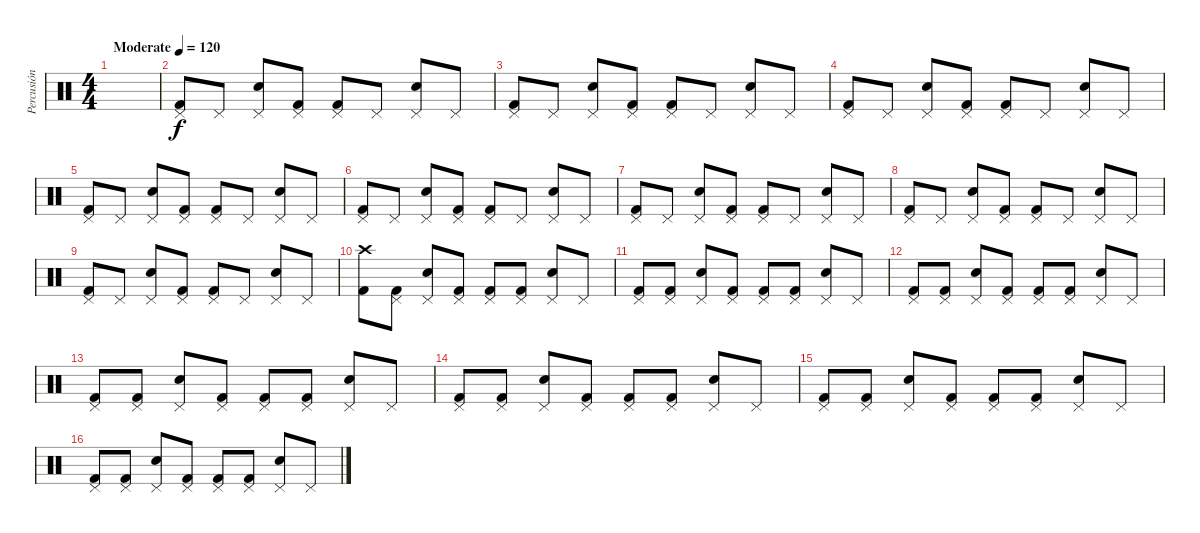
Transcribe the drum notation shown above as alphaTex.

\track ("Percusión" "Percusión") {instrument percussion}
\staff {score}
\articulation defaults
\ts (4 4)
\tempo (120 "Moderate")
\tempo 112
\tempo (120 "Moderate")
\clef neutral
\ks c
|
("Pedal Hi-Hat (hit)" "Kick (hit) 2").8 "Pedal Hi-Hat (hit)".8 ("Pedal Hi-Hat (hit)" "Electric Snare (hit)").8 ("Pedal Hi-Hat (hit)" "Kick (hit) 2").8 ("Pedal Hi-Hat (hit)" "Kick (hit) 2").8 "Pedal Hi-Hat (hit)".8 ("Pedal Hi-Hat (hit)" "Electric Snare (hit)").8 "Pedal Hi-Hat (hit)".8 |
("Pedal Hi-Hat (hit)" "Kick (hit) 2").8 "Pedal Hi-Hat (hit)".8 ("Pedal Hi-Hat (hit)" "Electric Snare (hit)").8 ("Pedal Hi-Hat (hit)" "Kick (hit) 2").8 ("Pedal Hi-Hat (hit)" "Kick (hit) 2").8 "Pedal Hi-Hat (hit)".8 ("Pedal Hi-Hat (hit)" "Electric Snare (hit)").8 "Pedal Hi-Hat (hit)".8 |
("Pedal Hi-Hat (hit)" "Kick (hit) 2").8 "Pedal Hi-Hat (hit)".8 ("Pedal Hi-Hat (hit)" "Electric Snare (hit)").8 ("Pedal Hi-Hat (hit)" "Kick (hit) 2").8 ("Pedal Hi-Hat (hit)" "Kick (hit) 2").8 "Pedal Hi-Hat (hit)".8 ("Pedal Hi-Hat (hit)" "Electric Snare (hit)").8 "Pedal Hi-Hat (hit)".8 |
("Pedal Hi-Hat (hit)" "Kick (hit) 2").8 "Pedal Hi-Hat (hit)".8 ("Pedal Hi-Hat (hit)" "Electric Snare (hit)").8 ("Pedal Hi-Hat (hit)" "Kick (hit) 2").8 ("Pedal Hi-Hat (hit)" "Kick (hit) 2").8 "Pedal Hi-Hat (hit)".8 ("Pedal Hi-Hat (hit)" "Electric Snare (hit)").8 "Pedal Hi-Hat (hit)".8 |
("Pedal Hi-Hat (hit)" "Kick (hit) 2").8 "Pedal Hi-Hat (hit)".8 ("Pedal Hi-Hat (hit)" "Electric Snare (hit)").8 ("Pedal Hi-Hat (hit)" "Kick (hit) 2").8 ("Pedal Hi-Hat (hit)" "Kick (hit) 2").8 "Pedal Hi-Hat (hit)".8 ("Pedal Hi-Hat (hit)" "Electric Snare (hit)").8 "Pedal Hi-Hat (hit)".8 |
("Pedal Hi-Hat (hit)" "Kick (hit) 2").8 "Pedal Hi-Hat (hit)".8 ("Pedal Hi-Hat (hit)" "Electric Snare (hit)").8 ("Pedal Hi-Hat (hit)" "Kick (hit) 2").8 ("Pedal Hi-Hat (hit)" "Kick (hit) 2").8 "Pedal Hi-Hat (hit)".8 ("Pedal Hi-Hat (hit)" "Electric Snare (hit)").8 "Pedal Hi-Hat (hit)".8 |
("Pedal Hi-Hat (hit)" "Kick (hit) 2").8 "Pedal Hi-Hat (hit)".8 ("Pedal Hi-Hat (hit)" "Electric Snare (hit)").8 ("Pedal Hi-Hat (hit)" "Kick (hit) 2").8 ("Pedal Hi-Hat (hit)" "Kick (hit) 2").8 "Pedal Hi-Hat (hit)".8 ("Pedal Hi-Hat (hit)" "Electric Snare (hit)").8 "Pedal Hi-Hat (hit)".8 |
("Pedal Hi-Hat (hit)" "Kick (hit) 2").8 "Pedal Hi-Hat (hit)".8 ("Pedal Hi-Hat (hit)" "Electric Snare (hit)").8 ("Pedal Hi-Hat (hit)" "Kick (hit) 2").8 ("Pedal Hi-Hat (hit)" "Kick (hit) 2").8 "Pedal Hi-Hat (hit)".8 ("Pedal Hi-Hat (hit)" "Electric Snare (hit)").8 "Pedal Hi-Hat (hit)".8 |
("Crash high (hit)" "Kick (hit) 2").8 ("Pedal Hi-Hat (hit)" "Kick (hit) 2").8 ("Pedal Hi-Hat (hit)" "Electric Snare (hit)").8 ("Pedal Hi-Hat (hit)" "Kick (hit) 2").8 ("Pedal Hi-Hat (hit)" "Kick (hit) 2").8 ("Pedal Hi-Hat (hit)" "Kick (hit) 2").8 ("Pedal Hi-Hat (hit)" "Electric Snare (hit)").8 "Pedal Hi-Hat (hit)".8 |
("Pedal Hi-Hat (hit)" "Kick (hit) 2").8 ("Pedal Hi-Hat (hit)" "Kick (hit) 2").8 ("Pedal Hi-Hat (hit)" "Electric Snare (hit)").8 ("Pedal Hi-Hat (hit)" "Kick (hit) 2").8 ("Pedal Hi-Hat (hit)" "Kick (hit) 2").8 ("Pedal Hi-Hat (hit)" "Kick (hit) 2").8 ("Pedal Hi-Hat (hit)" "Electric Snare (hit)").8 "Pedal Hi-Hat (hit)".8 |
("Pedal Hi-Hat (hit)" "Kick (hit) 2").8 ("Pedal Hi-Hat (hit)" "Kick (hit) 2").8 ("Pedal Hi-Hat (hit)" "Electric Snare (hit)").8 ("Pedal Hi-Hat (hit)" "Kick (hit) 2").8 ("Pedal Hi-Hat (hit)" "Kick (hit) 2").8 ("Pedal Hi-Hat (hit)" "Kick (hit) 2").8 ("Pedal Hi-Hat (hit)" "Electric Snare (hit)").8 "Pedal Hi-Hat (hit)".8 |
("Pedal Hi-Hat (hit)" "Kick (hit) 2").8 ("Pedal Hi-Hat (hit)" "Kick (hit) 2").8 ("Pedal Hi-Hat (hit)" "Electric Snare (hit)").8 ("Pedal Hi-Hat (hit)" "Kick (hit) 2").8 ("Pedal Hi-Hat (hit)" "Kick (hit) 2").8 ("Pedal Hi-Hat (hit)" "Kick (hit) 2").8 ("Pedal Hi-Hat (hit)" "Electric Snare (hit)").8 "Pedal Hi-Hat (hit)".8 |
("Pedal Hi-Hat (hit)" "Kick (hit) 2").8 ("Pedal Hi-Hat (hit)" "Kick (hit) 2").8 ("Pedal Hi-Hat (hit)" "Electric Snare (hit)").8 ("Pedal Hi-Hat (hit)" "Kick (hit) 2").8 ("Pedal Hi-Hat (hit)" "Kick (hit) 2").8 ("Pedal Hi-Hat (hit)" "Kick (hit) 2").8 ("Pedal Hi-Hat (hit)" "Electric Snare (hit)").8 "Pedal Hi-Hat (hit)".8 |
("Pedal Hi-Hat (hit)" "Kick (hit) 2").8 ("Pedal Hi-Hat (hit)" "Kick (hit) 2").8 ("Pedal Hi-Hat (hit)" "Electric Snare (hit)").8 ("Pedal Hi-Hat (hit)" "Kick (hit) 2").8 ("Pedal Hi-Hat (hit)" "Kick (hit) 2").8 ("Pedal Hi-Hat (hit)" "Kick (hit) 2").8 ("Pedal Hi-Hat (hit)" "Electric Snare (hit)").8 "Pedal Hi-Hat (hit)".8 |
("Pedal Hi-Hat (hit)" "Kick (hit) 2").8 ("Pedal Hi-Hat (hit)" "Kick (hit) 2").8 ("Pedal Hi-Hat (hit)" "Electric Snare (hit)").8 ("Pedal Hi-Hat (hit)" "Kick (hit) 2").8 ("Pedal Hi-Hat (hit)" "Kick (hit) 2").8 ("Pedal Hi-Hat (hit)" "Kick (hit) 2").8 ("Pedal Hi-Hat (hit)" "Electric Snare (hit)").8 "Pedal Hi-Hat (hit)".8
